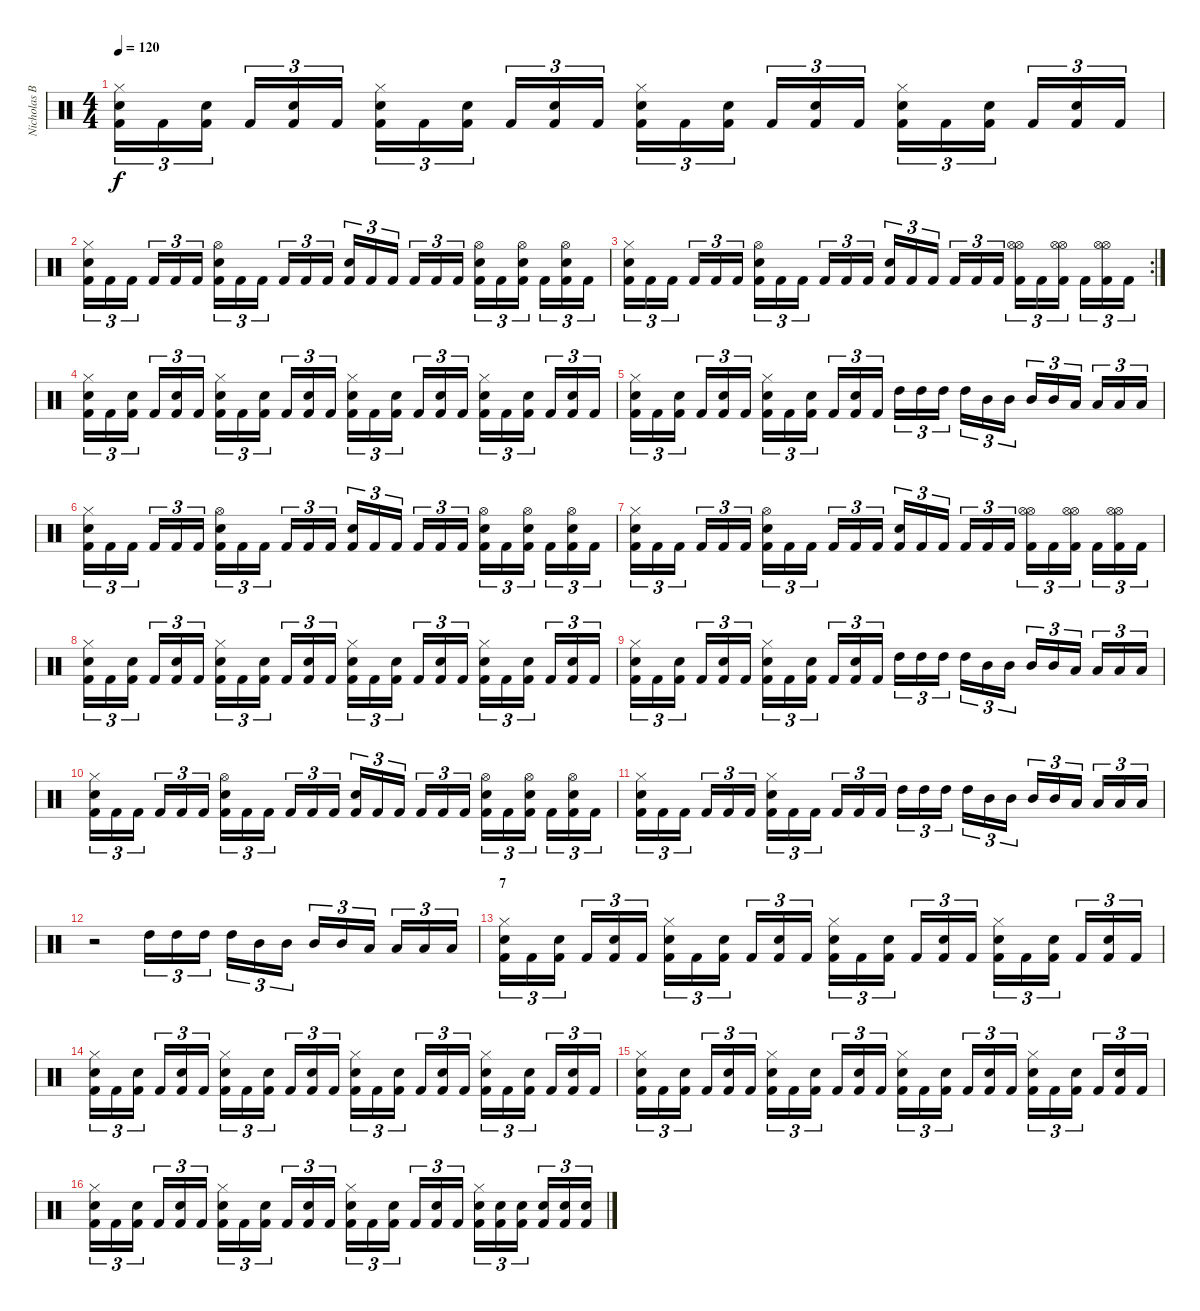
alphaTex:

\track ("Nicholas Barker" "Nicholas B") {instrument percussion}
\staff {score}
\articulation defaults
\ts (4 4)
\tempo 120
\clef neutral
\ks c
("Kick (hit) 2" "Snare (hit) 2" "Hi-Hat (closed)").16{tu (3 2) dy f} "Kick (hit) 2".16{tu (3 2)} ("Kick (hit) 2" "Snare (hit) 2").16{tu (3 2)} "Kick (hit) 2".16{tu (3 2)} ("Kick (hit) 2" "Snare (hit) 2").16{tu (3 2)} "Kick (hit) 2".16{tu (3 2)} ("Kick (hit) 2" "Snare (hit) 2" "Hi-Hat (closed)").16{tu (3 2)} "Kick (hit) 2".16{tu (3 2)} ("Kick (hit) 2" "Snare (hit) 2").16{tu (3 2)} "Kick (hit) 2".16{tu (3 2)} ("Kick (hit) 2" "Snare (hit) 2").16{tu (3 2)} "Kick (hit) 2".16{tu (3 2)} ("Kick (hit) 2" "Snare (hit) 2" "Hi-Hat (closed)").16{tu (3 2)} "Kick (hit) 2".16{tu (3 2)} ("Kick (hit) 2" "Snare (hit) 2").16{tu (3 2)} "Kick (hit) 2".16{tu (3 2)} ("Kick (hit) 2" "Snare (hit) 2").16{tu (3 2)} "Kick (hit) 2".16{tu (3 2)} ("Kick (hit) 2" "Snare (hit) 2" "Hi-Hat (closed)").16{tu (3 2)} "Kick (hit) 2".16{tu (3 2)} ("Kick (hit) 2" "Snare (hit) 2").16{tu (3 2)} "Kick (hit) 2".16{tu (3 2)} ("Kick (hit) 2" "Snare (hit) 2").16{tu (3 2)} "Kick (hit) 2".16{tu (3 2)} |
("Kick (hit) 2" "Snare (hit) 2" "Hi-Hat (closed)").16{tu (3 2)} "Kick (hit) 2".16{tu (3 2)} "Kick (hit) 2".16{tu (3 2)} "Kick (hit) 2".16{tu (3 2)} "Kick (hit) 2".16{tu (3 2)} "Kick (hit) 2".16{tu (3 2)} ("Kick (hit) 2" "Snare (hit) 2" "Hi-Hat (open)").16{tu (3 2)} "Kick (hit) 2".16{tu (3 2)} "Kick (hit) 2".16{tu (3 2)} "Kick (hit) 2".16{tu (3 2)} "Kick (hit) 2".16{tu (3 2)} "Kick (hit) 2".16{tu (3 2)} ("Kick (hit) 2" "Snare (hit) 2").16{tu (3 2)} "Kick (hit) 2".16{tu (3 2)} "Kick (hit) 2".16{tu (3 2)} "Kick (hit) 2".16{tu (3 2)} "Kick (hit) 2".16{tu (3 2)} "Kick (hit) 2".16{tu (3 2)} ("Kick (hit) 2" "Snare (hit) 2" "Hi-Hat (open)").16{tu (3 2)} "Kick (hit) 2".16{tu (3 2)} ("Kick (hit) 2" "Snare (hit) 2" "Hi-Hat (open)").16{tu (3 2)} "Kick (hit) 2".16{tu (3 2)} ("Kick (hit) 2" "Snare (hit) 2" "Hi-Hat (open)").16{tu (3 2)} "Kick (hit) 2".16{tu (3 2)} |
\rc 2
("Kick (hit) 2" "Snare (hit) 2" "Hi-Hat (closed)").16{tu (3 2)} "Kick (hit) 2".16{tu (3 2)} "Kick (hit) 2".16{tu (3 2)} "Kick (hit) 2".16{tu (3 2)} "Kick (hit) 2".16{tu (3 2)} "Kick (hit) 2".16{tu (3 2)} ("Kick (hit) 2" "Snare (hit) 2" "Hi-Hat (open)").16{tu (3 2)} "Kick (hit) 2".16{tu (3 2)} "Kick (hit) 2".16{tu (3 2)} "Kick (hit) 2".16{tu (3 2)} "Kick (hit) 2".16{tu (3 2)} "Kick (hit) 2".16{tu (3 2)} ("Kick (hit) 2" "Snare (hit) 2").16{tu (3 2)} "Kick (hit) 2".16{tu (3 2)} "Kick (hit) 2".16{tu (3 2)} "Kick (hit) 2".16{tu (3 2)} "Kick (hit) 2".16{tu (3 2)} "Kick (hit) 2".16{tu (3 2)} ("Kick (hit) 2" "Hi-Hat (open)" "Hi-Hat (open)").16{tu (3 2)} "Kick (hit) 2".16{tu (3 2)} ("Kick (hit) 2" "Hi-Hat (open)" "Hi-Hat (open)").16{tu (3 2)} "Kick (hit) 2".16{tu (3 2)} ("Kick (hit) 2" "Hi-Hat (open)" "Hi-Hat (open)").16{tu (3 2)} "Kick (hit) 2".16{tu (3 2)} |
("Kick (hit) 2" "Snare (hit) 2" "Hi-Hat (closed)").16{tu (3 2)} "Kick (hit) 2".16{tu (3 2)} ("Kick (hit) 2" "Snare (hit) 2").16{tu (3 2)} "Kick (hit) 2".16{tu (3 2)} ("Kick (hit) 2" "Snare (hit) 2").16{tu (3 2)} "Kick (hit) 2".16{tu (3 2)} ("Kick (hit) 2" "Snare (hit) 2" "Hi-Hat (closed)").16{tu (3 2)} "Kick (hit) 2".16{tu (3 2)} ("Kick (hit) 2" "Snare (hit) 2").16{tu (3 2)} "Kick (hit) 2".16{tu (3 2)} ("Kick (hit) 2" "Snare (hit) 2").16{tu (3 2)} "Kick (hit) 2".16{tu (3 2)} ("Kick (hit) 2" "Snare (hit) 2" "Hi-Hat (closed)").16{tu (3 2)} "Kick (hit) 2".16{tu (3 2)} ("Kick (hit) 2" "Snare (hit) 2").16{tu (3 2)} "Kick (hit) 2".16{tu (3 2)} ("Kick (hit) 2" "Snare (hit) 2").16{tu (3 2)} "Kick (hit) 2".16{tu (3 2)} ("Kick (hit) 2" "Snare (hit) 2" "Hi-Hat (closed)").16{tu (3 2)} "Kick (hit) 2".16{tu (3 2)} ("Kick (hit) 2" "Snare (hit) 2").16{tu (3 2)} "Kick (hit) 2".16{tu (3 2)} ("Kick (hit) 2" "Snare (hit) 2").16{tu (3 2)} "Kick (hit) 2".16{tu (3 2)} |
("Kick (hit) 2" "Snare (hit) 2" "Hi-Hat (closed)").16{tu (3 2)} "Kick (hit) 2".16{tu (3 2)} ("Kick (hit) 2" "Snare (hit) 2").16{tu (3 2)} "Kick (hit) 2".16{tu (3 2)} ("Kick (hit) 2" "Snare (hit) 2").16{tu (3 2)} "Kick (hit) 2".16{tu (3 2)} ("Kick (hit) 2" "Snare (hit) 2" "Hi-Hat (closed)").16{tu (3 2)} "Kick (hit) 2".16{tu (3 2)} ("Kick (hit) 2" "Snare (hit) 2").16{tu (3 2)} "Kick (hit) 2".16{tu (3 2)} ("Kick (hit) 2" "Snare (hit) 2").16{tu (3 2)} "Kick (hit) 2".16{tu (3 2)} "High Tom (hit)".16{tu (3 2)} "High Tom (hit)".16{tu (3 2)} "High Tom (hit)".16{tu (3 2)} "High Tom (hit)".16{tu (3 2)} "Mid Tom (hit)".16{tu (3 2)} "Mid Tom (hit)".16{tu (3 2)} "Mid Tom (hit)".16{tu (3 2)} "Mid Tom (hit)".16{tu (3 2)} "Low Tom (hit)".16{tu (3 2)} "Low Tom (hit)".16{tu (3 2)} "Low Tom (hit)".16{tu (3 2)} "Low Tom (hit)".16{tu (3 2)} |
("Kick (hit) 2" "Snare (hit) 2" "Hi-Hat (closed)").16{tu (3 2)} "Kick (hit) 2".16{tu (3 2)} "Kick (hit) 2".16{tu (3 2)} "Kick (hit) 2".16{tu (3 2)} "Kick (hit) 2".16{tu (3 2)} "Kick (hit) 2".16{tu (3 2)} ("Kick (hit) 2" "Snare (hit) 2" "Hi-Hat (open)").16{tu (3 2)} "Kick (hit) 2".16{tu (3 2)} "Kick (hit) 2".16{tu (3 2)} "Kick (hit) 2".16{tu (3 2)} "Kick (hit) 2".16{tu (3 2)} "Kick (hit) 2".16{tu (3 2)} ("Kick (hit) 2" "Snare (hit) 2").16{tu (3 2)} "Kick (hit) 2".16{tu (3 2)} "Kick (hit) 2".16{tu (3 2)} "Kick (hit) 2".16{tu (3 2)} "Kick (hit) 2".16{tu (3 2)} "Kick (hit) 2".16{tu (3 2)} ("Kick (hit) 2" "Snare (hit) 2" "Hi-Hat (open)").16{tu (3 2)} "Kick (hit) 2".16{tu (3 2)} ("Kick (hit) 2" "Snare (hit) 2" "Hi-Hat (open)").16{tu (3 2)} "Kick (hit) 2".16{tu (3 2)} ("Kick (hit) 2" "Snare (hit) 2" "Hi-Hat (open)").16{tu (3 2)} "Kick (hit) 2".16{tu (3 2)} |
("Kick (hit) 2" "Snare (hit) 2" "Hi-Hat (closed)").16{tu (3 2)} "Kick (hit) 2".16{tu (3 2)} "Kick (hit) 2".16{tu (3 2)} "Kick (hit) 2".16{tu (3 2)} "Kick (hit) 2".16{tu (3 2)} "Kick (hit) 2".16{tu (3 2)} ("Kick (hit) 2" "Snare (hit) 2" "Hi-Hat (open)").16{tu (3 2)} "Kick (hit) 2".16{tu (3 2)} "Kick (hit) 2".16{tu (3 2)} "Kick (hit) 2".16{tu (3 2)} "Kick (hit) 2".16{tu (3 2)} "Kick (hit) 2".16{tu (3 2)} ("Kick (hit) 2" "Snare (hit) 2").16{tu (3 2)} "Kick (hit) 2".16{tu (3 2)} "Kick (hit) 2".16{tu (3 2)} "Kick (hit) 2".16{tu (3 2)} "Kick (hit) 2".16{tu (3 2)} "Kick (hit) 2".16{tu (3 2)} ("Kick (hit) 2" "Hi-Hat (open)" "Hi-Hat (open)").16{tu (3 2)} "Kick (hit) 2".16{tu (3 2)} ("Kick (hit) 2" "Hi-Hat (open)" "Hi-Hat (open)").16{tu (3 2)} "Kick (hit) 2".16{tu (3 2)} ("Kick (hit) 2" "Hi-Hat (open)" "Hi-Hat (open)").16{tu (3 2)} "Kick (hit) 2".16{tu (3 2)} |
("Kick (hit) 2" "Snare (hit) 2" "Hi-Hat (closed)").16{tu (3 2)} "Kick (hit) 2".16{tu (3 2)} ("Kick (hit) 2" "Snare (hit) 2").16{tu (3 2)} "Kick (hit) 2".16{tu (3 2)} ("Kick (hit) 2" "Snare (hit) 2").16{tu (3 2)} "Kick (hit) 2".16{tu (3 2)} ("Kick (hit) 2" "Snare (hit) 2" "Hi-Hat (closed)").16{tu (3 2)} "Kick (hit) 2".16{tu (3 2)} ("Kick (hit) 2" "Snare (hit) 2").16{tu (3 2)} "Kick (hit) 2".16{tu (3 2)} ("Kick (hit) 2" "Snare (hit) 2").16{tu (3 2)} "Kick (hit) 2".16{tu (3 2)} ("Kick (hit) 2" "Snare (hit) 2" "Hi-Hat (closed)").16{tu (3 2)} "Kick (hit) 2".16{tu (3 2)} ("Kick (hit) 2" "Snare (hit) 2").16{tu (3 2)} "Kick (hit) 2".16{tu (3 2)} ("Kick (hit) 2" "Snare (hit) 2").16{tu (3 2)} "Kick (hit) 2".16{tu (3 2)} ("Kick (hit) 2" "Snare (hit) 2" "Hi-Hat (closed)").16{tu (3 2)} "Kick (hit) 2".16{tu (3 2)} ("Kick (hit) 2" "Snare (hit) 2").16{tu (3 2)} "Kick (hit) 2".16{tu (3 2)} ("Kick (hit) 2" "Snare (hit) 2").16{tu (3 2)} "Kick (hit) 2".16{tu (3 2)} |
("Kick (hit) 2" "Snare (hit) 2" "Hi-Hat (closed)").16{tu (3 2)} "Kick (hit) 2".16{tu (3 2)} ("Kick (hit) 2" "Snare (hit) 2").16{tu (3 2)} "Kick (hit) 2".16{tu (3 2)} ("Kick (hit) 2" "Snare (hit) 2").16{tu (3 2)} "Kick (hit) 2".16{tu (3 2)} ("Kick (hit) 2" "Snare (hit) 2" "Hi-Hat (closed)").16{tu (3 2)} "Kick (hit) 2".16{tu (3 2)} ("Kick (hit) 2" "Snare (hit) 2").16{tu (3 2)} "Kick (hit) 2".16{tu (3 2)} ("Kick (hit) 2" "Snare (hit) 2").16{tu (3 2)} "Kick (hit) 2".16{tu (3 2)} "High Tom (hit)".16{tu (3 2)} "High Tom (hit)".16{tu (3 2)} "High Tom (hit)".16{tu (3 2)} "High Tom (hit)".16{tu (3 2)} "Mid Tom (hit)".16{tu (3 2)} "Mid Tom (hit)".16{tu (3 2)} "Mid Tom (hit)".16{tu (3 2)} "Mid Tom (hit)".16{tu (3 2)} "Low Tom (hit)".16{tu (3 2)} "Low Tom (hit)".16{tu (3 2)} "Low Tom (hit)".16{tu (3 2)} "Low Tom (hit)".16{tu (3 2)} |
("Kick (hit) 2" "Snare (hit) 2" "Hi-Hat (closed)").16{tu (3 2)} "Kick (hit) 2".16{tu (3 2)} "Kick (hit) 2".16{tu (3 2)} "Kick (hit) 2".16{tu (3 2)} "Kick (hit) 2".16{tu (3 2)} "Kick (hit) 2".16{tu (3 2)} ("Kick (hit) 2" "Snare (hit) 2" "Hi-Hat (open)").16{tu (3 2)} "Kick (hit) 2".16{tu (3 2)} "Kick (hit) 2".16{tu (3 2)} "Kick (hit) 2".16{tu (3 2)} "Kick (hit) 2".16{tu (3 2)} "Kick (hit) 2".16{tu (3 2)} ("Kick (hit) 2" "Snare (hit) 2").16{tu (3 2)} "Kick (hit) 2".16{tu (3 2)} "Kick (hit) 2".16{tu (3 2)} "Kick (hit) 2".16{tu (3 2)} "Kick (hit) 2".16{tu (3 2)} "Kick (hit) 2".16{tu (3 2)} ("Kick (hit) 2" "Snare (hit) 2" "Hi-Hat (open)").16{tu (3 2)} "Kick (hit) 2".16{tu (3 2)} ("Kick (hit) 2" "Snare (hit) 2" "Hi-Hat (open)").16{tu (3 2)} "Kick (hit) 2".16{tu (3 2)} ("Kick (hit) 2" "Snare (hit) 2" "Hi-Hat (open)").16{tu (3 2)} "Kick (hit) 2".16{tu (3 2)} |
("Kick (hit) 2" "Snare (hit) 2" "Hi-Hat (closed)").16{tu (3 2)} "Kick (hit) 2".16{tu (3 2)} "Kick (hit) 2".16{tu (3 2)} "Kick (hit) 2".16{tu (3 2)} "Kick (hit) 2".16{tu (3 2)} "Kick (hit) 2".16{tu (3 2)} ("Kick (hit) 2" "Snare (hit) 2" "Hi-Hat (closed)").16{tu (3 2)} "Kick (hit) 2".16{tu (3 2)} "Kick (hit) 2".16{tu (3 2)} "Kick (hit) 2".16{tu (3 2)} "Kick (hit) 2".16{tu (3 2)} "Kick (hit) 2".16{tu (3 2)} "High Tom (hit)".16{tu (3 2)} "High Tom (hit)".16{tu (3 2)} "High Tom (hit)".16{tu (3 2)} "High Tom (hit)".16{tu (3 2)} "Mid Tom (hit)".16{tu (3 2)} "Mid Tom (hit)".16{tu (3 2)} "Mid Tom (hit)".16{tu (3 2)} "Mid Tom (hit)".16{tu (3 2)} "Low Tom (hit)".16{tu (3 2)} "Low Tom (hit)".16{tu (3 2)} "Low Tom (hit)".16{tu (3 2)} "Low Tom (hit)".16{tu (3 2)} |
r.2 "High Tom (hit)".16{tu (3 2)} "High Tom (hit)".16{tu (3 2)} "High Tom (hit)".16{tu (3 2)} "High Tom (hit)".16{tu (3 2)} "Mid Tom (hit)".16{tu (3 2)} "Mid Tom (hit)".16{tu (3 2)} "Mid Tom (hit)".16{tu (3 2)} "Mid Tom (hit)".16{tu (3 2)} "Low Tom (hit)".16{tu (3 2)} "Low Tom (hit)".16{tu (3 2)} "Low Tom (hit)".16{tu (3 2)} "Low Tom (hit)".16{tu (3 2)} |
\section ("" "7")
("Kick (hit) 2" "Snare (hit) 2" "Hi-Hat (closed)").16{tu (3 2)} "Kick (hit) 2".16{tu (3 2)} ("Kick (hit) 2" "Snare (hit) 2").16{tu (3 2)} "Kick (hit) 2".16{tu (3 2)} ("Kick (hit) 2" "Snare (hit) 2").16{tu (3 2)} "Kick (hit) 2".16{tu (3 2)} ("Kick (hit) 2" "Snare (hit) 2" "Hi-Hat (closed)").16{tu (3 2)} "Kick (hit) 2".16{tu (3 2)} ("Kick (hit) 2" "Snare (hit) 2").16{tu (3 2)} "Kick (hit) 2".16{tu (3 2)} ("Kick (hit) 2" "Snare (hit) 2").16{tu (3 2)} "Kick (hit) 2".16{tu (3 2)} ("Kick (hit) 2" "Snare (hit) 2" "Hi-Hat (closed)").16{tu (3 2)} "Kick (hit) 2".16{tu (3 2)} ("Kick (hit) 2" "Snare (hit) 2").16{tu (3 2)} "Kick (hit) 2".16{tu (3 2)} ("Kick (hit) 2" "Snare (hit) 2").16{tu (3 2)} "Kick (hit) 2".16{tu (3 2)} ("Kick (hit) 2" "Snare (hit) 2" "Hi-Hat (closed)").16{tu (3 2)} "Kick (hit) 2".16{tu (3 2)} ("Kick (hit) 2" "Snare (hit) 2").16{tu (3 2)} "Kick (hit) 2".16{tu (3 2)} ("Kick (hit) 2" "Snare (hit) 2").16{tu (3 2)} "Kick (hit) 2".16{tu (3 2)} |
("Kick (hit) 2" "Snare (hit) 2" "Hi-Hat (closed)").16{tu (3 2)} "Kick (hit) 2".16{tu (3 2)} ("Kick (hit) 2" "Snare (hit) 2").16{tu (3 2)} "Kick (hit) 2".16{tu (3 2)} ("Kick (hit) 2" "Snare (hit) 2").16{tu (3 2)} "Kick (hit) 2".16{tu (3 2)} ("Kick (hit) 2" "Snare (hit) 2" "Hi-Hat (closed)").16{tu (3 2)} "Kick (hit) 2".16{tu (3 2)} ("Kick (hit) 2" "Snare (hit) 2").16{tu (3 2)} "Kick (hit) 2".16{tu (3 2)} ("Kick (hit) 2" "Snare (hit) 2").16{tu (3 2)} "Kick (hit) 2".16{tu (3 2)} ("Kick (hit) 2" "Snare (hit) 2" "Hi-Hat (closed)").16{tu (3 2)} "Kick (hit) 2".16{tu (3 2)} ("Kick (hit) 2" "Snare (hit) 2").16{tu (3 2)} "Kick (hit) 2".16{tu (3 2)} ("Kick (hit) 2" "Snare (hit) 2").16{tu (3 2)} "Kick (hit) 2".16{tu (3 2)} ("Kick (hit) 2" "Snare (hit) 2" "Hi-Hat (closed)").16{tu (3 2)} "Kick (hit) 2".16{tu (3 2)} ("Kick (hit) 2" "Snare (hit) 2").16{tu (3 2)} "Kick (hit) 2".16{tu (3 2)} ("Kick (hit) 2" "Snare (hit) 2").16{tu (3 2)} "Kick (hit) 2".16{tu (3 2)} |
("Kick (hit) 2" "Snare (hit) 2" "Hi-Hat (closed)").16{tu (3 2)} "Kick (hit) 2".16{tu (3 2)} ("Kick (hit) 2" "Snare (hit) 2").16{tu (3 2)} "Kick (hit) 2".16{tu (3 2)} ("Kick (hit) 2" "Snare (hit) 2").16{tu (3 2)} "Kick (hit) 2".16{tu (3 2)} ("Kick (hit) 2" "Snare (hit) 2" "Hi-Hat (closed)").16{tu (3 2)} "Kick (hit) 2".16{tu (3 2)} ("Kick (hit) 2" "Snare (hit) 2").16{tu (3 2)} "Kick (hit) 2".16{tu (3 2)} ("Kick (hit) 2" "Snare (hit) 2").16{tu (3 2)} "Kick (hit) 2".16{tu (3 2)} ("Kick (hit) 2" "Snare (hit) 2" "Hi-Hat (closed)").16{tu (3 2)} "Kick (hit) 2".16{tu (3 2)} ("Kick (hit) 2" "Snare (hit) 2").16{tu (3 2)} "Kick (hit) 2".16{tu (3 2)} ("Kick (hit) 2" "Snare (hit) 2").16{tu (3 2)} "Kick (hit) 2".16{tu (3 2)} ("Kick (hit) 2" "Snare (hit) 2" "Hi-Hat (closed)").16{tu (3 2)} "Kick (hit) 2".16{tu (3 2)} ("Kick (hit) 2" "Snare (hit) 2").16{tu (3 2)} "Kick (hit) 2".16{tu (3 2)} ("Kick (hit) 2" "Snare (hit) 2").16{tu (3 2)} "Kick (hit) 2".16{tu (3 2)} |
("Kick (hit) 2" "Snare (hit) 2" "Hi-Hat (closed)").16{tu (3 2)} "Kick (hit) 2".16{tu (3 2)} ("Kick (hit) 2" "Snare (hit) 2").16{tu (3 2)} "Kick (hit) 2".16{tu (3 2)} ("Kick (hit) 2" "Snare (hit) 2").16{tu (3 2)} "Kick (hit) 2".16{tu (3 2)} ("Kick (hit) 2" "Snare (hit) 2" "Hi-Hat (closed)").16{tu (3 2)} "Kick (hit) 2".16{tu (3 2)} ("Kick (hit) 2" "Snare (hit) 2").16{tu (3 2)} "Kick (hit) 2".16{tu (3 2)} ("Kick (hit) 2" "Snare (hit) 2").16{tu (3 2)} "Kick (hit) 2".16{tu (3 2)} ("Kick (hit) 2" "Snare (hit) 2" "Hi-Hat (closed)").16{tu (3 2)} "Kick (hit) 2".16{tu (3 2)} ("Kick (hit) 2" "Snare (hit) 2").16{tu (3 2)} "Kick (hit) 2".16{tu (3 2)} ("Kick (hit) 2" "Snare (hit) 2").16{tu (3 2)} "Kick (hit) 2".16{tu (3 2)} ("Kick (hit) 2" "Snare (hit) 2" "Hi-Hat (closed)").16{tu (3 2)} ("Kick (hit) 2" "Snare (hit) 2").16{tu (3 2)} ("Kick (hit) 2" "Snare (hit) 2").16{tu (3 2)} ("Kick (hit) 2" "Snare (hit) 2").16{tu (3 2)} ("Kick (hit) 2" "Snare (hit) 2").16{tu (3 2)} ("Kick (hit) 2" "Snare (hit) 2").16{tu (3 2)}
